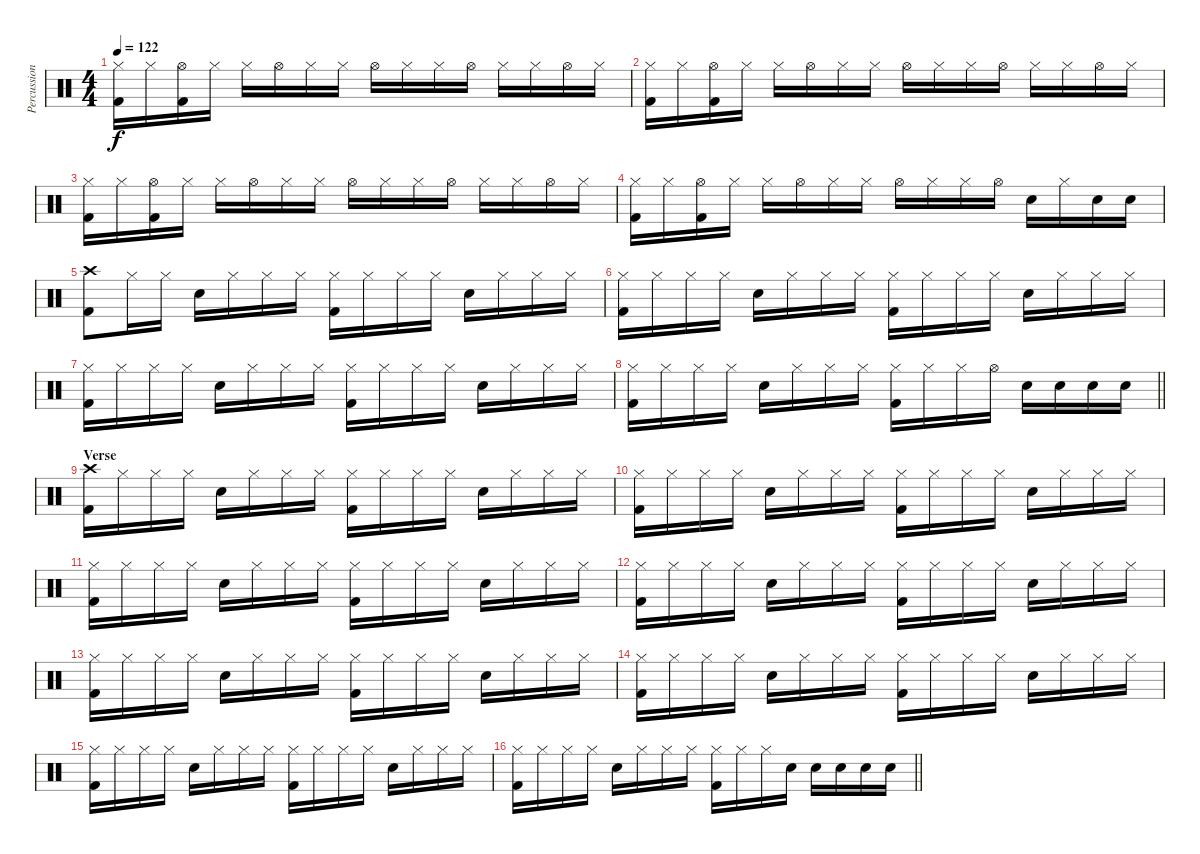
\track ("Percussion" "Percussion") {instrument percussion}
\staff {score}
\articulation defaults
\ts (4 4)
\tempo 122
\clef neutral
\ks c
("Hi-Hat (closed)" "Kick (hit) 2").16{dy f} "Hi-Hat (closed)".16 ("Hi-Hat (open)" "Kick (hit) 2").16 "Hi-Hat (closed)".16 "Hi-Hat (closed)".16 "Hi-Hat (open)".16 "Hi-Hat (closed)".16 "Hi-Hat (closed)".16 "Hi-Hat (open)".16 "Hi-Hat (closed)".16 "Hi-Hat (closed)".16 "Hi-Hat (open)".16 "Hi-Hat (closed)".16 "Hi-Hat (closed)".16 "Hi-Hat (open)".16 "Hi-Hat (closed)".16 |
("Hi-Hat (closed)" "Kick (hit) 2").16 "Hi-Hat (closed)".16 ("Hi-Hat (open)" "Kick (hit) 2").16 "Hi-Hat (closed)".16 "Hi-Hat (closed)".16 "Hi-Hat (open)".16 "Hi-Hat (closed)".16 "Hi-Hat (closed)".16 "Hi-Hat (open)".16 "Hi-Hat (closed)".16 "Hi-Hat (closed)".16 "Hi-Hat (open)".16 "Hi-Hat (closed)".16 "Hi-Hat (closed)".16 "Hi-Hat (open)".16 "Hi-Hat (closed)".16 |
("Hi-Hat (closed)" "Kick (hit) 2").16 "Hi-Hat (closed)".16 ("Hi-Hat (open)" "Kick (hit) 2").16 "Hi-Hat (closed)".16 "Hi-Hat (closed)".16 "Hi-Hat (open)".16 "Hi-Hat (closed)".16 "Hi-Hat (closed)".16 "Hi-Hat (open)".16 "Hi-Hat (closed)".16 "Hi-Hat (closed)".16 "Hi-Hat (open)".16 "Hi-Hat (closed)".16 "Hi-Hat (closed)".16 "Hi-Hat (open)".16 "Hi-Hat (closed)".16 |
("Hi-Hat (closed)" "Kick (hit) 2").16 "Hi-Hat (closed)".16 ("Hi-Hat (open)" "Kick (hit) 2").16 "Hi-Hat (closed)".16 "Hi-Hat (closed)".16 "Hi-Hat (open)".16 "Hi-Hat (closed)".16 "Hi-Hat (closed)".16 "Hi-Hat (open)".16 "Hi-Hat (closed)".16 "Hi-Hat (closed)".16 "Hi-Hat (open)".16 "Electric Snare (hit)".16 "Hi-Hat (closed)".16 "Electric Snare (hit)".16 "Electric Snare (hit)".16 |
("Crash high (hit)" "Kick (hit) 2").8 "Hi-Hat (closed)".16 "Hi-Hat (closed)".16 "Electric Snare (hit)".16 "Hi-Hat (closed)".16 "Hi-Hat (closed)".16 "Hi-Hat (closed)".16 ("Hi-Hat (closed)" "Kick (hit) 2").16 "Hi-Hat (closed)".16 "Hi-Hat (closed)".16 "Hi-Hat (closed)".16 "Electric Snare (hit)".16 "Hi-Hat (closed)".16 "Hi-Hat (closed)".16 "Hi-Hat (closed)".16 |
("Hi-Hat (closed)" "Kick (hit) 2").16 "Hi-Hat (closed)".16 "Hi-Hat (closed)".16 "Hi-Hat (closed)".16 "Electric Snare (hit)".16 "Hi-Hat (closed)".16 "Hi-Hat (closed)".16 "Hi-Hat (closed)".16 ("Hi-Hat (closed)" "Kick (hit) 2").16 "Hi-Hat (closed)".16 "Hi-Hat (closed)".16 "Hi-Hat (closed)".16 "Electric Snare (hit)".16 "Hi-Hat (closed)".16 "Hi-Hat (closed)".16 "Hi-Hat (closed)".16 |
("Hi-Hat (closed)" "Kick (hit) 2").16 "Hi-Hat (closed)".16 "Hi-Hat (closed)".16 "Hi-Hat (closed)".16 "Electric Snare (hit)".16 "Hi-Hat (closed)".16 "Hi-Hat (closed)".16 "Hi-Hat (closed)".16 ("Hi-Hat (closed)" "Kick (hit) 2").16 "Hi-Hat (closed)".16 "Hi-Hat (closed)".16 "Hi-Hat (closed)".16 "Electric Snare (hit)".16 "Hi-Hat (closed)".16 "Hi-Hat (closed)".16 "Hi-Hat (closed)".16 |
\barLineRight lightlight
("Hi-Hat (closed)" "Kick (hit) 2").16 "Hi-Hat (closed)".16 "Hi-Hat (closed)".16 "Hi-Hat (closed)".16 "Electric Snare (hit)".16 "Hi-Hat (closed)".16 "Hi-Hat (closed)".16 "Hi-Hat (closed)".16 ("Hi-Hat (closed)" "Kick (hit) 2").16 "Hi-Hat (closed)".16 "Hi-Hat (closed)".16 "Hi-Hat (open)".16 "Electric Snare (hit)".16 "Electric Snare (hit)".16 "Electric Snare (hit)".16 "Electric Snare (hit)".16 |
\section ("" "Verse")
("Crash high (hit)" "Kick (hit) 2").16 "Hi-Hat (closed)".16 "Hi-Hat (closed)".16 "Hi-Hat (closed)".16 "Electric Snare (hit)".16 "Hi-Hat (closed)".16 "Hi-Hat (closed)".16 "Hi-Hat (closed)".16 ("Hi-Hat (closed)" "Kick (hit) 2").16 "Hi-Hat (closed)".16 "Hi-Hat (closed)".16 "Hi-Hat (closed)".16 "Electric Snare (hit)".16 "Hi-Hat (closed)".16 "Hi-Hat (closed)".16 "Hi-Hat (closed)".16 |
("Hi-Hat (closed)" "Kick (hit) 2").16 "Hi-Hat (closed)".16 "Hi-Hat (closed)".16 "Hi-Hat (closed)".16 "Electric Snare (hit)".16 "Hi-Hat (closed)".16 "Hi-Hat (closed)".16 "Hi-Hat (closed)".16 ("Hi-Hat (closed)" "Kick (hit) 2").16 "Hi-Hat (closed)".16 "Hi-Hat (closed)".16 "Hi-Hat (closed)".16 "Electric Snare (hit)".16 "Hi-Hat (closed)".16 "Hi-Hat (closed)".16 "Hi-Hat (closed)".16 |
("Hi-Hat (closed)" "Kick (hit) 2").16 "Hi-Hat (closed)".16 "Hi-Hat (closed)".16 "Hi-Hat (closed)".16 "Electric Snare (hit)".16 "Hi-Hat (closed)".16 "Hi-Hat (closed)".16 "Hi-Hat (closed)".16 ("Hi-Hat (closed)" "Kick (hit) 2").16 "Hi-Hat (closed)".16 "Hi-Hat (closed)".16 "Hi-Hat (closed)".16 "Electric Snare (hit)".16 "Hi-Hat (closed)".16 "Hi-Hat (closed)".16 "Hi-Hat (closed)".16 |
("Hi-Hat (closed)" "Kick (hit) 2").16 "Hi-Hat (closed)".16 "Hi-Hat (closed)".16 "Hi-Hat (closed)".16 "Electric Snare (hit)".16 "Hi-Hat (closed)".16 "Hi-Hat (closed)".16 "Hi-Hat (closed)".16 ("Hi-Hat (closed)" "Kick (hit) 2").16 "Hi-Hat (closed)".16 "Hi-Hat (closed)".16 "Hi-Hat (closed)".16 "Electric Snare (hit)".16 "Hi-Hat (closed)".16 "Hi-Hat (closed)".16 "Hi-Hat (closed)".16 |
("Hi-Hat (closed)" "Kick (hit) 2").16 "Hi-Hat (closed)".16 "Hi-Hat (closed)".16 "Hi-Hat (closed)".16 "Electric Snare (hit)".16 "Hi-Hat (closed)".16 "Hi-Hat (closed)".16 "Hi-Hat (closed)".16 ("Hi-Hat (closed)" "Kick (hit) 2").16 "Hi-Hat (closed)".16 "Hi-Hat (closed)".16 "Hi-Hat (closed)".16 "Electric Snare (hit)".16 "Hi-Hat (closed)".16 "Hi-Hat (closed)".16 "Hi-Hat (closed)".16 |
("Hi-Hat (closed)" "Kick (hit) 2").16 "Hi-Hat (closed)".16 "Hi-Hat (closed)".16 "Hi-Hat (closed)".16 "Electric Snare (hit)".16 "Hi-Hat (closed)".16 "Hi-Hat (closed)".16 "Hi-Hat (closed)".16 ("Hi-Hat (closed)" "Kick (hit) 2").16 "Hi-Hat (closed)".16 "Hi-Hat (closed)".16 "Hi-Hat (closed)".16 "Electric Snare (hit)".16 "Hi-Hat (closed)".16 "Hi-Hat (closed)".16 "Hi-Hat (closed)".16 |
("Hi-Hat (closed)" "Kick (hit) 2").16 "Hi-Hat (closed)".16 "Hi-Hat (closed)".16 "Hi-Hat (closed)".16 "Electric Snare (hit)".16 "Hi-Hat (closed)".16 "Hi-Hat (closed)".16 "Hi-Hat (closed)".16 ("Hi-Hat (closed)" "Kick (hit) 2").16 "Hi-Hat (closed)".16 "Hi-Hat (closed)".16 "Hi-Hat (closed)".16 "Electric Snare (hit)".16 "Hi-Hat (closed)".16 "Hi-Hat (closed)".16 "Hi-Hat (closed)".16 |
\barLineRight lightlight
("Hi-Hat (closed)" "Kick (hit) 2").16 "Hi-Hat (closed)".16 "Hi-Hat (closed)".16 "Hi-Hat (closed)".16 "Electric Snare (hit)".16 "Hi-Hat (closed)".16 "Hi-Hat (closed)".16 "Hi-Hat (closed)".16 ("Hi-Hat (closed)" "Kick (hit) 2").16 "Hi-Hat (closed)".16 "Hi-Hat (closed)".16 "Electric Snare (hit)".16 "Electric Snare (hit)".16 "Electric Snare (hit)".16 "Electric Snare (hit)".16 "Electric Snare (hit)".16
